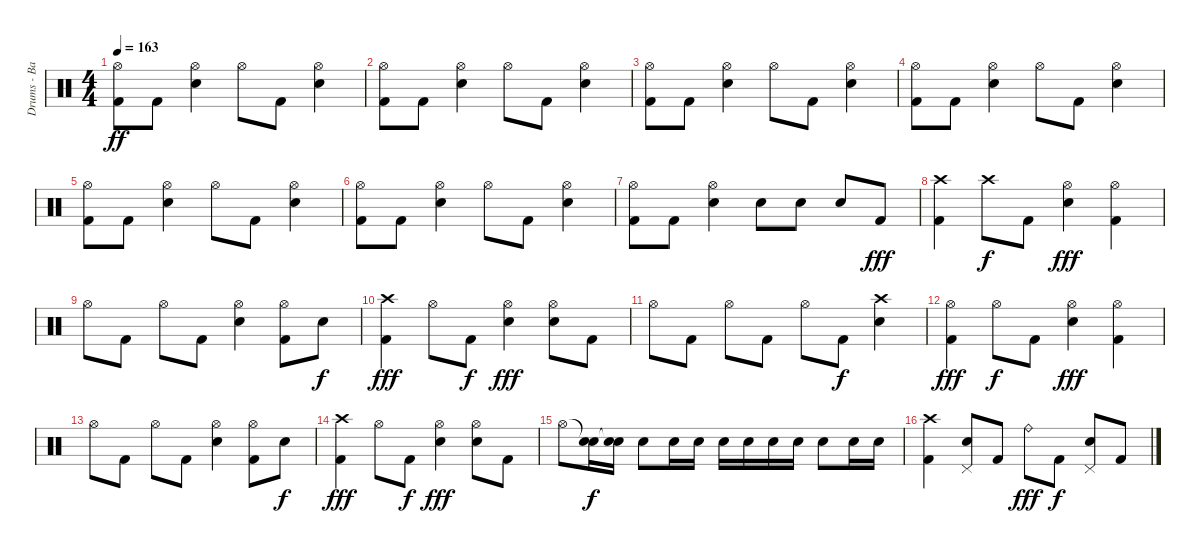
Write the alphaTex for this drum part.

\track ("Drums - Bateria" "Drums - Ba") {instrument percussion}
\staff {score}
\articulation defaults
\ts (4 4)
\tempo 163
\clef neutral
\ks c
("Hi-Hat (open)" "Kick (hit) 2").8{dy ff} "Kick (hit) 2".8 ("Hi-Hat (open)" "Electric Snare (hit)").4 "Hi-Hat (open)".8 "Kick (hit) 2".8 ("Hi-Hat (open)" "Electric Snare (hit)").4 |
("Hi-Hat (open)" "Kick (hit) 2").8 "Kick (hit) 2".8 ("Hi-Hat (open)" "Electric Snare (hit)").4 "Hi-Hat (open)".8 "Kick (hit) 2".8 ("Hi-Hat (open)" "Electric Snare (hit)").4 |
("Hi-Hat (open)" "Kick (hit) 2").8 "Kick (hit) 2".8 ("Hi-Hat (open)" "Electric Snare (hit)").4 "Hi-Hat (open)".8 "Kick (hit) 2".8 ("Hi-Hat (open)" "Electric Snare (hit)").4 |
("Hi-Hat (open)" "Kick (hit) 2").8 "Kick (hit) 2".8 ("Hi-Hat (open)" "Electric Snare (hit)").4 "Hi-Hat (open)".8 "Kick (hit) 2".8 ("Hi-Hat (open)" "Electric Snare (hit)").4 |
("Hi-Hat (open)" "Kick (hit) 2").8 "Kick (hit) 2".8 ("Hi-Hat (open)" "Electric Snare (hit)").4 "Hi-Hat (open)".8 "Kick (hit) 2".8 ("Hi-Hat (open)" "Electric Snare (hit)").4 |
("Hi-Hat (open)" "Kick (hit) 2").8 "Kick (hit) 2".8 ("Hi-Hat (open)" "Electric Snare (hit)").4 "Hi-Hat (open)".8 "Kick (hit) 2".8 ("Hi-Hat (open)" "Electric Snare (hit)").4 |
("Hi-Hat (open)" "Kick (hit) 2").8 "Kick (hit) 2".8 ("Hi-Hat (open)" "Electric Snare (hit)").4 "Electric Snare (hit)".8 "Electric Snare (hit)".8 "Electric Snare (hit)".8 "Kick (hit) 2".8{dy fff} |
("Crash high (hit)" "Kick (hit) 2").4 "Crash high (hit)".8{dy f} "Kick (hit) 2".8 ("Hi-Hat (open)" "Electric Snare (hit)").4{dy fff} ("Hi-Hat (open)" "Kick (hit) 2").4 |
"Hi-Hat (open)".8 "Kick (hit) 2".8 "Hi-Hat (open)".8 "Kick (hit) 2".8 ("Hi-Hat (open)" "Electric Snare (hit)").4 ("Hi-Hat (open)" "Kick (hit) 2").8 "Electric Snare (hit)".8{dy f} |
("Crash high (hit)" "Kick (hit) 2").4{dy fff} "Hi-Hat (open)".8 "Kick (hit) 2".8{dy f} ("Hi-Hat (open)" "Electric Snare (hit)").4{dy fff} ("Hi-Hat (open)" "Electric Snare (hit)").8 "Kick (hit) 2".8 |
"Hi-Hat (open)".8 "Kick (hit) 2".8 "Hi-Hat (open)".8 "Kick (hit) 2".8 "Hi-Hat (open)".8 "Kick (hit) 2".8{dy f} ("Crash high (hit)" "Electric Snare (hit)").4 |
("Hi-Hat (open)" "Kick (hit) 2").4{dy fff} "Hi-Hat (open)".8{dy f} "Kick (hit) 2".8 ("Hi-Hat (open)" "Electric Snare (hit)").4{dy fff} ("Hi-Hat (open)" "Kick (hit) 2").4 |
"Hi-Hat (open)".8 "Kick (hit) 2".8 "Hi-Hat (open)".8 "Kick (hit) 2".8 ("Hi-Hat (open)" "Electric Snare (hit)").4 ("Hi-Hat (open)" "Kick (hit) 2").8 "Electric Snare (hit)".8{dy f} |
("Crash high (hit)" "Kick (hit) 2").4{dy fff} "Hi-Hat (open)".8 "Kick (hit) 2".8{dy f} ("Hi-Hat (open)" "Electric Snare (hit)").4{dy fff} ("Hi-Hat (open)" "Electric Snare (hit)").8 "Kick (hit) 2".8 |
"Hi-Hat (open)".8 ("Snare (hit)"{t} "Electric Snare (hit)").16{dy f} ("Snare (hit)"{t} "Electric Snare (hit)").16 "Electric Snare (hit)".8 "Electric Snare (hit)".16 "Electric Snare (hit)".16 "Electric Snare (hit)".16 "Electric Snare (hit)".16 "Electric Snare (hit)".16 "Electric Snare (hit)".16 "Electric Snare (hit)".8 "Electric Snare (hit)".16 "Electric Snare (hit)".16 |
("Crash high (hit)" "Kick (hit) 2").4 ("Pedal Hi-Hat (hit)" "Electric Snare (hit)").8 "Kick (hit) 2".8 "Ride (bell)".8{dy fff} "Kick (hit) 2".8{dy f} ("Pedal Hi-Hat (hit)" "Electric Snare (hit)").8 "Kick (hit) 2".8
